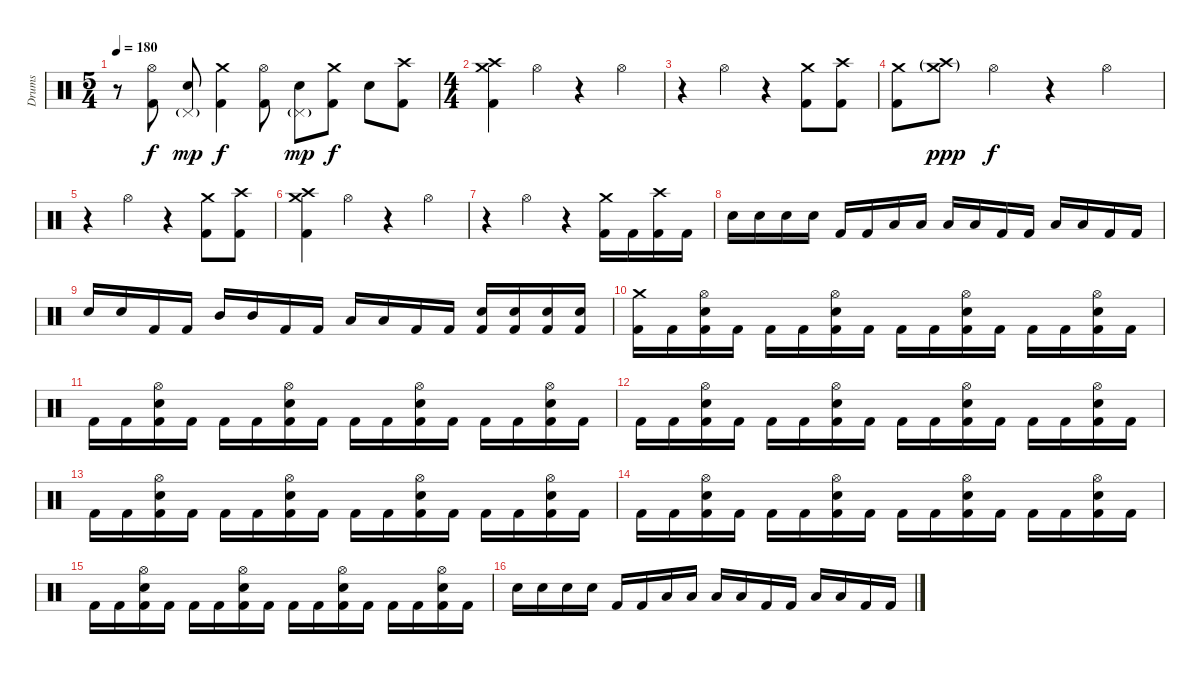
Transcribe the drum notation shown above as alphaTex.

\track ("Drums" "Drums") {instrument percussion}
\staff {score}
\articulation defaults
\ts (5 4)
\tempo 180
\clef neutral
\ks c
r.8{dy f} ("Hi-Hat (open)" "Kick (hit) 2").8 ("Pedal Hi-Hat (hit)"{g} "Electric Snare (hit)").8{dy mp} ("Crash medium (hit)" "Kick (hit) 2").4{dy f} ("Hi-Hat (open)" "Kick (hit) 2").8 ("Pedal Hi-Hat (hit)"{g} "Electric Snare (hit)").8{dy mp} ("Crash medium (hit)" "Kick (hit) 2").8{dy f} "Electric Snare (hit)".8 ("Crash high (hit)" "Kick (hit) 2").8 |
\ts (4 4)
("Crash medium (hit)" "Crash high (hit)" "Kick (hit) 2").4 "Hi-Hat (open)".4 r.4 "Hi-Hat (open)".4 |
r.4 "Hi-Hat (open)".4 r.4 ("Crash medium (hit)" "Kick (hit) 2").8 ("Crash high (hit)" "Kick (hit) 2").8 |
("Crash medium (hit)" "Kick (hit) 2").8 ("Crash medium (hit)"{g} "Crash high (hit)"{g}).8{dy ppp volume 0} "Hi-Hat (open)".4{dy f volume 16} r.4 "Hi-Hat (open)".4 |
r.4 "Hi-Hat (open)".4 r.4 ("Crash medium (hit)" "Kick (hit) 2").8 ("Crash high (hit)" "Kick (hit) 2").8 |
("Crash medium (hit)" "Crash high (hit)" "Kick (hit) 2").4 "Hi-Hat (open)".4 r.4 "Hi-Hat (open)".4 |
r.4 "Hi-Hat (open)".4 r.4 ("Crash medium (hit)" "Kick (hit) 2").16 "Kick (hit) 2".16 ("Crash high (hit)" "Kick (hit) 2").16 "Kick (hit) 2".16 |
"Electric Snare (hit)".16 "Electric Snare (hit)".16 "Electric Snare (hit)".16 "Electric Snare (hit)".16 "Kick (hit) 2".16 "Kick (hit) 2".16 "Low Tom (hit)".16 "Low Tom (hit)".16 "Low Tom (hit)".16 "Low Tom (hit)".16 "Kick (hit) 2".16 "Kick (hit) 2".16 "Low Tom (hit)".16 "Low Tom (hit)".16 "Kick (hit) 2".16 "Kick (hit) 2".16 |
"Electric Snare (hit)".16 "Electric Snare (hit)".16 "Kick (hit) 2".16 "Kick (hit) 2".16 "Mid Tom (hit)".16 "Mid Tom (hit)".16 "Kick (hit) 2".16 "Kick (hit) 2".16 "Low Tom (hit)".16 "Low Tom (hit)".16 "Kick (hit) 2".16 "Kick (hit) 2".16 ("Electric Snare (hit)" "Kick (hit) 2").16 ("Electric Snare (hit)" "Kick (hit) 2").16 ("Electric Snare (hit)" "Kick (hit) 2").16 ("Electric Snare (hit)" "Kick (hit) 2").16 |
("Crash medium (hit)" "Kick (hit) 2").16 "Kick (hit) 2".16 ("Hi-Hat (open)" "Electric Snare (hit)" "Kick (hit) 2").16 "Kick (hit) 2".16 "Kick (hit) 2".16 "Kick (hit) 2".16 ("Hi-Hat (open)" "Electric Snare (hit)" "Kick (hit) 2").16 "Kick (hit) 2".16 "Kick (hit) 2".16 "Kick (hit) 2".16 ("Hi-Hat (open)" "Electric Snare (hit)" "Kick (hit) 2").16 "Kick (hit) 2".16 "Kick (hit) 2".16 "Kick (hit) 2".16 ("Hi-Hat (open)" "Electric Snare (hit)" "Kick (hit) 2").16 "Kick (hit) 2".16 |
"Kick (hit) 2".16 "Kick (hit) 2".16 ("Hi-Hat (open)" "Electric Snare (hit)" "Kick (hit) 2").16 "Kick (hit) 2".16 "Kick (hit) 2".16 "Kick (hit) 2".16 ("Hi-Hat (open)" "Electric Snare (hit)" "Kick (hit) 2").16 "Kick (hit) 2".16 "Kick (hit) 2".16 "Kick (hit) 2".16 ("Hi-Hat (open)" "Electric Snare (hit)" "Kick (hit) 2").16 "Kick (hit) 2".16 "Kick (hit) 2".16 "Kick (hit) 2".16 ("Hi-Hat (open)" "Electric Snare (hit)" "Kick (hit) 2").16 "Kick (hit) 2".16 |
"Kick (hit) 2".16 "Kick (hit) 2".16 ("Hi-Hat (open)" "Electric Snare (hit)" "Kick (hit) 2").16 "Kick (hit) 2".16 "Kick (hit) 2".16 "Kick (hit) 2".16 ("Hi-Hat (open)" "Electric Snare (hit)" "Kick (hit) 2").16 "Kick (hit) 2".16 "Kick (hit) 2".16 "Kick (hit) 2".16 ("Hi-Hat (open)" "Electric Snare (hit)" "Kick (hit) 2").16 "Kick (hit) 2".16 "Kick (hit) 2".16 "Kick (hit) 2".16 ("Hi-Hat (open)" "Electric Snare (hit)" "Kick (hit) 2").16 "Kick (hit) 2".16 |
"Kick (hit) 2".16 "Kick (hit) 2".16 ("Hi-Hat (open)" "Electric Snare (hit)" "Kick (hit) 2").16 "Kick (hit) 2".16 "Kick (hit) 2".16 "Kick (hit) 2".16 ("Hi-Hat (open)" "Electric Snare (hit)" "Kick (hit) 2").16 "Kick (hit) 2".16 "Kick (hit) 2".16 "Kick (hit) 2".16 ("Hi-Hat (open)" "Electric Snare (hit)" "Kick (hit) 2").16 "Kick (hit) 2".16 "Kick (hit) 2".16 "Kick (hit) 2".16 ("Hi-Hat (open)" "Electric Snare (hit)" "Kick (hit) 2").16 "Kick (hit) 2".16 |
"Kick (hit) 2".16 "Kick (hit) 2".16 ("Hi-Hat (open)" "Electric Snare (hit)" "Kick (hit) 2").16 "Kick (hit) 2".16 "Kick (hit) 2".16 "Kick (hit) 2".16 ("Hi-Hat (open)" "Electric Snare (hit)" "Kick (hit) 2").16 "Kick (hit) 2".16 "Kick (hit) 2".16 "Kick (hit) 2".16 ("Hi-Hat (open)" "Electric Snare (hit)" "Kick (hit) 2").16 "Kick (hit) 2".16 "Kick (hit) 2".16 "Kick (hit) 2".16 ("Hi-Hat (open)" "Electric Snare (hit)" "Kick (hit) 2").16 "Kick (hit) 2".16 |
"Kick (hit) 2".16 "Kick (hit) 2".16 ("Hi-Hat (open)" "Electric Snare (hit)" "Kick (hit) 2").16 "Kick (hit) 2".16 "Kick (hit) 2".16 "Kick (hit) 2".16 ("Hi-Hat (open)" "Electric Snare (hit)" "Kick (hit) 2").16 "Kick (hit) 2".16 "Kick (hit) 2".16 "Kick (hit) 2".16 ("Hi-Hat (open)" "Electric Snare (hit)" "Kick (hit) 2").16 "Kick (hit) 2".16 "Kick (hit) 2".16 "Kick (hit) 2".16 ("Hi-Hat (open)" "Electric Snare (hit)" "Kick (hit) 2").16 "Kick (hit) 2".16 |
"Electric Snare (hit)".16 "Electric Snare (hit)".16 "Electric Snare (hit)".16 "Electric Snare (hit)".16 "Kick (hit) 2".16 "Kick (hit) 2".16 "Low Tom (hit)".16 "Low Tom (hit)".16 "Low Tom (hit)".16 "Low Tom (hit)".16 "Kick (hit) 2".16 "Kick (hit) 2".16 "Low Tom (hit)".16 "Low Tom (hit)".16 "Kick (hit) 2".16 "Kick (hit) 2".16
